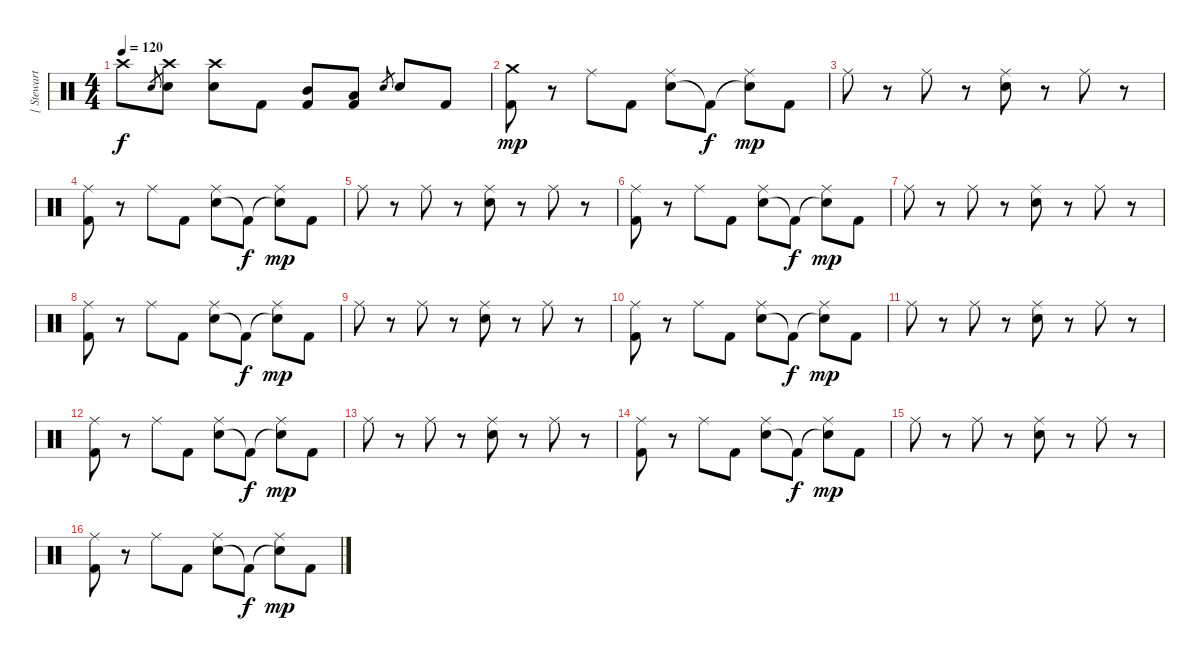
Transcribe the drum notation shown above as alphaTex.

\track ("[ Stewart ] " "[ Stewart ") {instrument percussion}
\staff {score}
\articulation defaults
\ts (4 4)
\tempo 120
\clef neutral
\ks c "Crash high (hit)".8{dy f} "Electric Snare (hit)".8{gr}
("Electric Snare (hit)" "Crash high (hit)").8 ("Electric Snare (hit)" "Crash high (hit)").8 "Kick (hit) 2".8 ("Mid Tom (hit)" "Kick (hit) 2").8 ("Low Tom (hit)" "Kick (hit) 2").8 "Electric Snare (hit)".8{gr} "Electric Snare (hit)".8 "Kick (hit) 2".8 |
("Kick (hit) 2" "Crash medium (hit)").8{dy mp} r.8 "Ride (middle)".8 "Kick (hit) 2".8 ("Electric Snare (hit)" "Ride (middle)").8 "Kick (hit) 2"{t}.8{dy f} ("Snare (hit)"{t} "Ride (middle)").8{dy mp} "Kick (hit) 2".8 |
"Ride (middle)".8 r.8 "Ride (middle)".8 r.8 ("Electric Snare (hit)" "Ride (middle)").8 r.8 "Ride (middle)".8 r.8 |
("Kick (hit) 2" "Ride (middle)").8 r.8 "Ride (middle)".8 "Kick (hit) 2".8 ("Electric Snare (hit)" "Ride (middle)").8 "Kick (hit) 2"{t}.8{dy f} ("Snare (hit)"{t} "Ride (middle)").8{dy mp} "Kick (hit) 2".8 |
"Ride (middle)".8 r.8 "Ride (middle)".8 r.8 ("Electric Snare (hit)" "Ride (middle)").8 r.8 "Ride (middle)".8 r.8 |
("Kick (hit) 2" "Ride (middle)").8 r.8 "Ride (middle)".8 "Kick (hit) 2".8 ("Electric Snare (hit)" "Ride (middle)").8 "Kick (hit) 2"{t}.8{dy f} ("Snare (hit)"{t} "Ride (middle)").8{dy mp} "Kick (hit) 2".8 |
"Ride (middle)".8 r.8 "Ride (middle)".8 r.8 ("Electric Snare (hit)" "Ride (middle)").8 r.8 "Ride (middle)".8 r.8 |
("Kick (hit) 2" "Ride (middle)").8 r.8 "Ride (middle)".8 "Kick (hit) 2".8 ("Electric Snare (hit)" "Ride (middle)").8 "Kick (hit) 2"{t}.8{dy f} ("Snare (hit)"{t} "Ride (middle)").8{dy mp} "Kick (hit) 2".8 |
"Ride (middle)".8 r.8 "Ride (middle)".8 r.8 ("Electric Snare (hit)" "Ride (middle)").8 r.8 "Ride (middle)".8 r.8 |
("Kick (hit) 2" "Ride (middle)").8 r.8 "Ride (middle)".8 "Kick (hit) 2".8 ("Electric Snare (hit)" "Ride (middle)").8 "Kick (hit) 2"{t}.8{dy f} ("Snare (hit)"{t} "Ride (middle)").8{dy mp} "Kick (hit) 2".8 |
"Ride (middle)".8 r.8 "Ride (middle)".8 r.8 ("Electric Snare (hit)" "Ride (middle)").8 r.8 "Ride (middle)".8 r.8 |
("Kick (hit) 2" "Ride (middle)").8 r.8 "Ride (middle)".8 "Kick (hit) 2".8 ("Electric Snare (hit)" "Ride (middle)").8 "Kick (hit) 2"{t}.8{dy f} ("Snare (hit)"{t} "Ride (middle)").8{dy mp} "Kick (hit) 2".8 |
"Ride (middle)".8 r.8 "Ride (middle)".8 r.8 ("Electric Snare (hit)" "Ride (middle)").8 r.8 "Ride (middle)".8 r.8 |
("Kick (hit) 2" "Ride (middle)").8 r.8 "Ride (middle)".8 "Kick (hit) 2".8 ("Electric Snare (hit)" "Ride (middle)").8 "Kick (hit) 2"{t}.8{dy f} ("Snare (hit)"{t} "Ride (middle)").8{dy mp} "Kick (hit) 2".8 |
"Ride (middle)".8 r.8 "Ride (middle)".8 r.8 ("Electric Snare (hit)" "Ride (middle)").8 r.8 "Ride (middle)".8 r.8 |
("Kick (hit) 2" "Ride (middle)").8 r.8 "Ride (middle)".8 "Kick (hit) 2".8 ("Electric Snare (hit)" "Ride (middle)").8 "Kick (hit) 2"{t}.8{dy f} ("Snare (hit)"{t} "Ride (middle)").8{dy mp} "Kick (hit) 2".8
